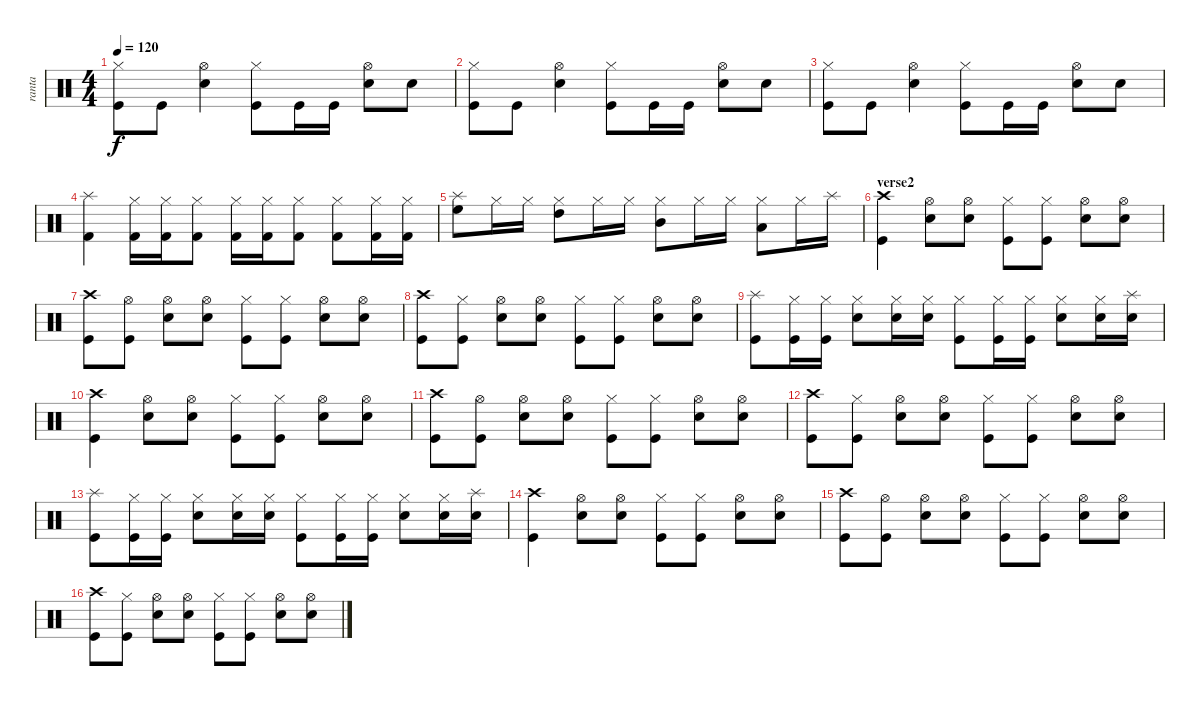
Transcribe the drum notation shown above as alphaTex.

\track ("ranta" "ranta") {instrument percussion}
\staff {score}
\articulation defaults
\ts (4 4)
\tempo 120
\clef neutral
\ks c
("Hi-Hat (closed)" "Kick (hit)").8{dy f} "Kick (hit)".8 ("Hi-Hat (open)" "Snare (hit) 2").4 ("Hi-Hat (closed)" "Kick (hit)").8 "Kick (hit)".16 "Kick (hit)".16 ("Hi-Hat (open)" "Snare (hit) 2").8 "Snare (hit) 2".8 |
("Hi-Hat (closed)" "Kick (hit)").8 "Kick (hit)".8 ("Hi-Hat (open)" "Snare (hit) 2").4 ("Hi-Hat (closed)" "Kick (hit)").8 "Kick (hit)".16 "Kick (hit)".16 ("Hi-Hat (open)" "Snare (hit) 2").8 "Snare (hit) 2".8 |
("Hi-Hat (closed)" "Kick (hit)").8 "Kick (hit)".8 ("Hi-Hat (open)" "Snare (hit) 2").4 ("Hi-Hat (closed)" "Kick (hit)").8 "Kick (hit)".16 "Kick (hit)".16 ("Hi-Hat (open)" "Snare (hit) 2").8 "Snare (hit) 2".8 |
("Splash (hit)" "Kick (hit) 2").4 ("Hi-Hat (closed)" "Kick (hit) 2").16 ("Hi-Hat (closed)" "Kick (hit) 2").16 ("Hi-Hat (closed)" "Kick (hit) 2").8 ("Hi-Hat (closed)" "Kick (hit) 2").16 ("Hi-Hat (closed)" "Kick (hit) 2").16 ("Hi-Hat (closed)" "Kick (hit) 2").8 ("Hi-Hat (closed)" "Kick (hit) 2").8 ("Hi-Hat (closed)" "Kick (hit) 2").16 ("Hi-Hat (closed)" "Kick (hit) 2").16 |
("Splash (hit)" "High Floor Tom (hit)").8 "Hi-Hat (closed)".16 "Hi-Hat (closed)".16 ("Hi-Hat (closed)" "High Tom (hit)").8 "Hi-Hat (closed)".16 "Hi-Hat (closed)".16 ("Hi-Hat (closed)" "Mid Tom (hit)").8 "Hi-Hat (closed)".16 "Hi-Hat (closed)".16 ("Hi-Hat (closed)" "Low Tom (hit)").8 "Hi-Hat (closed)".16 "Splash (hit)".16 |
\section ("" "verse2")
("Crash high (hit)" "Kick (hit)").4 ("Hi-Hat (open)" "Snare (hit) 2").8 ("Hi-Hat (open)" "Snare (hit) 2").8 ("Hi-Hat (closed)" "Kick (hit)").8 ("Hi-Hat (closed)" "Kick (hit)").8 ("Hi-Hat (open)" "Snare (hit) 2").8 ("Hi-Hat (open)" "Snare (hit) 2").8 |
("Crash high (hit)" "Kick (hit)").8 ("Hi-Hat (open)" "Kick (hit)").8 ("Hi-Hat (open)" "Snare (hit) 2").8 ("Hi-Hat (open)" "Snare (hit) 2").8 ("Hi-Hat (closed)" "Kick (hit)").8 ("Hi-Hat (closed)" "Kick (hit)").8 ("Hi-Hat (open)" "Snare (hit) 2").8 ("Hi-Hat (open)" "Snare (hit) 2").8 |
("Crash high (hit)" "Kick (hit)").8 ("Hi-Hat (closed)" "Kick (hit)").8 ("Hi-Hat (open)" "Snare (hit) 2").8 ("Hi-Hat (open)" "Snare (hit) 2").8 ("Hi-Hat (closed)" "Kick (hit)").8 ("Hi-Hat (closed)" "Kick (hit)").8 ("Hi-Hat (open)" "Snare (hit) 2").8 ("Hi-Hat (open)" "Snare (hit) 2").8 |
("Splash (hit)" "Kick (hit)").8 ("Hi-Hat (closed)" "Kick (hit)").16 ("Hi-Hat (closed)" "Kick (hit)").16 ("Hi-Hat (closed)" "Snare (hit) 2").8 ("Hi-Hat (closed)" "Snare (hit) 2").16 ("Hi-Hat (closed)" "Snare (hit) 2").16 ("Hi-Hat (closed)" "Kick (hit)").8 ("Hi-Hat (closed)" "Kick (hit)").16 ("Hi-Hat (closed)" "Kick (hit)").16 ("Hi-Hat (closed)" "Snare (hit) 2").8 ("Hi-Hat (closed)" "Snare (hit) 2").16 ("Splash (hit)" "Snare (hit) 2").16 |
("Crash high (hit)" "Kick (hit)").4 ("Hi-Hat (open)" "Snare (hit) 2").8 ("Hi-Hat (open)" "Snare (hit) 2").8 ("Hi-Hat (closed)" "Kick (hit)").8 ("Hi-Hat (closed)" "Kick (hit)").8 ("Hi-Hat (open)" "Snare (hit) 2").8 ("Hi-Hat (open)" "Snare (hit) 2").8 |
("Crash high (hit)" "Kick (hit)").8 ("Hi-Hat (open)" "Kick (hit)").8 ("Hi-Hat (open)" "Snare (hit) 2").8 ("Hi-Hat (open)" "Snare (hit) 2").8 ("Hi-Hat (closed)" "Kick (hit)").8 ("Hi-Hat (closed)" "Kick (hit)").8 ("Hi-Hat (open)" "Snare (hit) 2").8 ("Hi-Hat (open)" "Snare (hit) 2").8 |
("Crash high (hit)" "Kick (hit)").8 ("Hi-Hat (closed)" "Kick (hit)").8 ("Hi-Hat (open)" "Snare (hit) 2").8 ("Hi-Hat (open)" "Snare (hit) 2").8 ("Hi-Hat (closed)" "Kick (hit)").8 ("Hi-Hat (closed)" "Kick (hit)").8 ("Hi-Hat (open)" "Snare (hit) 2").8 ("Hi-Hat (open)" "Snare (hit) 2").8 |
("Splash (hit)" "Kick (hit)").8 ("Hi-Hat (closed)" "Kick (hit)").16 ("Hi-Hat (closed)" "Kick (hit)").16 ("Hi-Hat (closed)" "Snare (hit) 2").8 ("Hi-Hat (closed)" "Snare (hit) 2").16 ("Hi-Hat (closed)" "Snare (hit) 2").16 ("Hi-Hat (closed)" "Kick (hit)").8 ("Hi-Hat (closed)" "Kick (hit)").16 ("Hi-Hat (closed)" "Kick (hit)").16 ("Hi-Hat (closed)" "Snare (hit) 2").8 ("Hi-Hat (closed)" "Snare (hit) 2").16 ("Splash (hit)" "Snare (hit) 2").16 |
("Crash high (hit)" "Kick (hit)").4 ("Hi-Hat (open)" "Snare (hit) 2").8 ("Hi-Hat (open)" "Snare (hit) 2").8 ("Hi-Hat (closed)" "Kick (hit)").8 ("Hi-Hat (closed)" "Kick (hit)").8 ("Hi-Hat (open)" "Snare (hit) 2").8 ("Hi-Hat (open)" "Snare (hit) 2").8 |
("Crash high (hit)" "Kick (hit)").8 ("Hi-Hat (open)" "Kick (hit)").8 ("Hi-Hat (open)" "Snare (hit) 2").8 ("Hi-Hat (open)" "Snare (hit) 2").8 ("Hi-Hat (closed)" "Kick (hit)").8 ("Hi-Hat (closed)" "Kick (hit)").8 ("Hi-Hat (open)" "Snare (hit) 2").8 ("Hi-Hat (open)" "Snare (hit) 2").8 |
("Crash high (hit)" "Kick (hit)").8 ("Hi-Hat (closed)" "Kick (hit)").8 ("Hi-Hat (open)" "Snare (hit) 2").8 ("Hi-Hat (open)" "Snare (hit) 2").8 ("Hi-Hat (closed)" "Kick (hit)").8 ("Hi-Hat (closed)" "Kick (hit)").8 ("Hi-Hat (open)" "Snare (hit) 2").8 ("Hi-Hat (open)" "Snare (hit) 2").8
